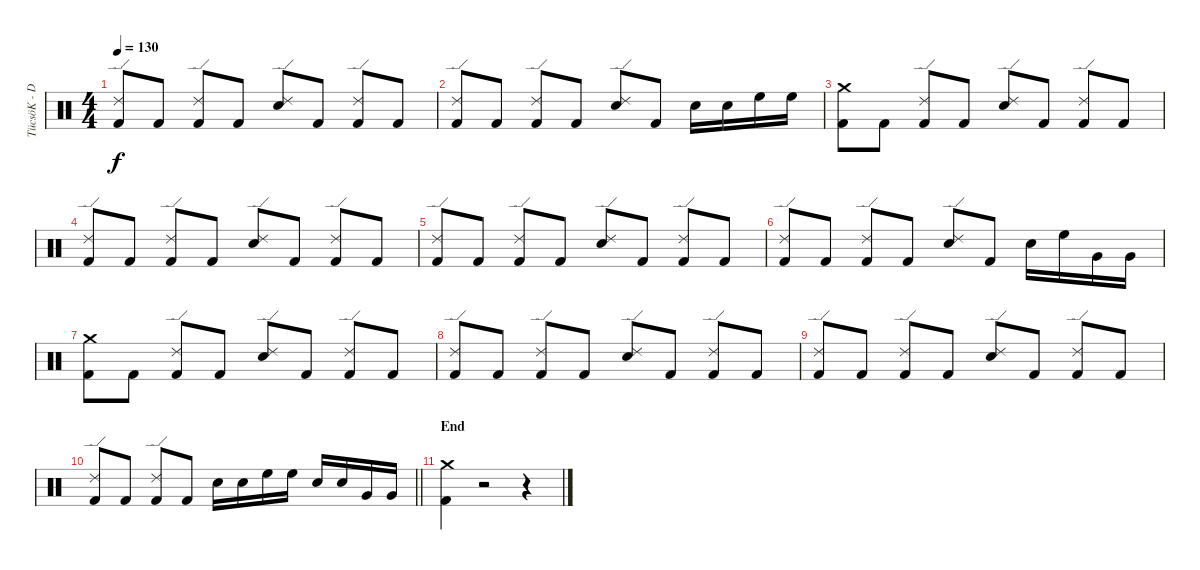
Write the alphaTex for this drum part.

\track ("TücsöK - Dob" "TücsöK - D") {instrument percussion}
\staff {score}
\articulation defaults
\ts (4 4)
\tempo 130
\clef neutral
\ks c
("Ride (edge) 2" "Kick (hit) 2").8{dy f} "Kick (hit) 2".8 ("Ride (edge) 2" "Kick (hit) 2").8 "Kick (hit) 2".8 ("Ride (edge) 2" "Snare (hit) 2").8 "Kick (hit) 2".8 ("Ride (edge) 2" "Kick (hit) 2").8 "Kick (hit) 2".8 |
("Ride (edge) 2" "Kick (hit) 2").8 "Kick (hit) 2".8 ("Ride (edge) 2" "Kick (hit) 2").8 "Kick (hit) 2".8 ("Ride (edge) 2" "Snare (hit) 2").8 "Kick (hit) 2".8 "Snare (hit) 2".16 "Snare (hit) 2".16 "High Floor Tom (hit)".16 "High Floor Tom (hit)".16 |
("Crash medium (hit)" "Kick (hit) 2").8 "Kick (hit) 2".8 ("Ride (edge) 2" "Kick (hit) 2").8 "Kick (hit) 2".8 ("Ride (edge) 2" "Snare (hit) 2").8 "Kick (hit) 2".8 ("Ride (edge) 2" "Kick (hit) 2").8 "Kick (hit) 2".8 |
("Ride (edge) 2" "Kick (hit) 2").8 "Kick (hit) 2".8 ("Ride (edge) 2" "Kick (hit) 2").8 "Kick (hit) 2".8 ("Ride (edge) 2" "Snare (hit) 2").8 "Kick (hit) 2".8 ("Ride (edge) 2" "Kick (hit) 2").8 "Kick (hit) 2".8 |
("Ride (edge) 2" "Kick (hit) 2").8 "Kick (hit) 2".8 ("Ride (edge) 2" "Kick (hit) 2").8 "Kick (hit) 2".8 ("Ride (edge) 2" "Snare (hit) 2").8 "Kick (hit) 2".8 ("Ride (edge) 2" "Kick (hit) 2").8 "Kick (hit) 2".8 |
("Ride (edge) 2" "Kick (hit) 2").8 "Kick (hit) 2".8 ("Ride (edge) 2" "Kick (hit) 2").8 "Kick (hit) 2".8 ("Ride (edge) 2" "Snare (hit) 2").8 "Kick (hit) 2".8 "Snare (hit) 2".16 "High Floor Tom (hit)".16 "Very Low Tom (hit)".16 "Very Low Tom (hit)".16 |
("Crash medium (hit)" "Kick (hit) 2").8{volume 0} "Kick (hit) 2".8 ("Ride (edge) 2" "Kick (hit) 2").8 "Kick (hit) 2".8 ("Ride (edge) 2" "Snare (hit) 2").8 "Kick (hit) 2".8 ("Ride (edge) 2" "Kick (hit) 2").8 "Kick (hit) 2".8 |
("Ride (edge) 2" "Kick (hit) 2").8 "Kick (hit) 2".8 ("Ride (edge) 2" "Kick (hit) 2").8 "Kick (hit) 2".8 ("Ride (edge) 2" "Snare (hit) 2").8 "Kick (hit) 2".8 ("Ride (edge) 2" "Kick (hit) 2").8 "Kick (hit) 2".8 |
("Ride (edge) 2" "Kick (hit) 2").8 "Kick (hit) 2".8 ("Ride (edge) 2" "Kick (hit) 2").8 "Kick (hit) 2".8 ("Ride (edge) 2" "Snare (hit) 2").8 "Kick (hit) 2".8 ("Ride (edge) 2" "Kick (hit) 2").8 "Kick (hit) 2".8 |
\barLineRight lightlight
("Ride (edge) 2" "Kick (hit) 2").8 "Kick (hit) 2".8 ("Ride (edge) 2" "Kick (hit) 2").8 "Kick (hit) 2".8 "Snare (hit) 2".16 "Snare (hit) 2".16 "High Floor Tom (hit)".16 "High Floor Tom (hit)".16 "Snare (hit) 2".16 "Snare (hit) 2".16 "Very Low Tom (hit)".16 "Very Low Tom (hit)".16 |
\section ("" "End")
("Crash medium (hit)" "Kick (hit) 2").4 r.2 r.4
